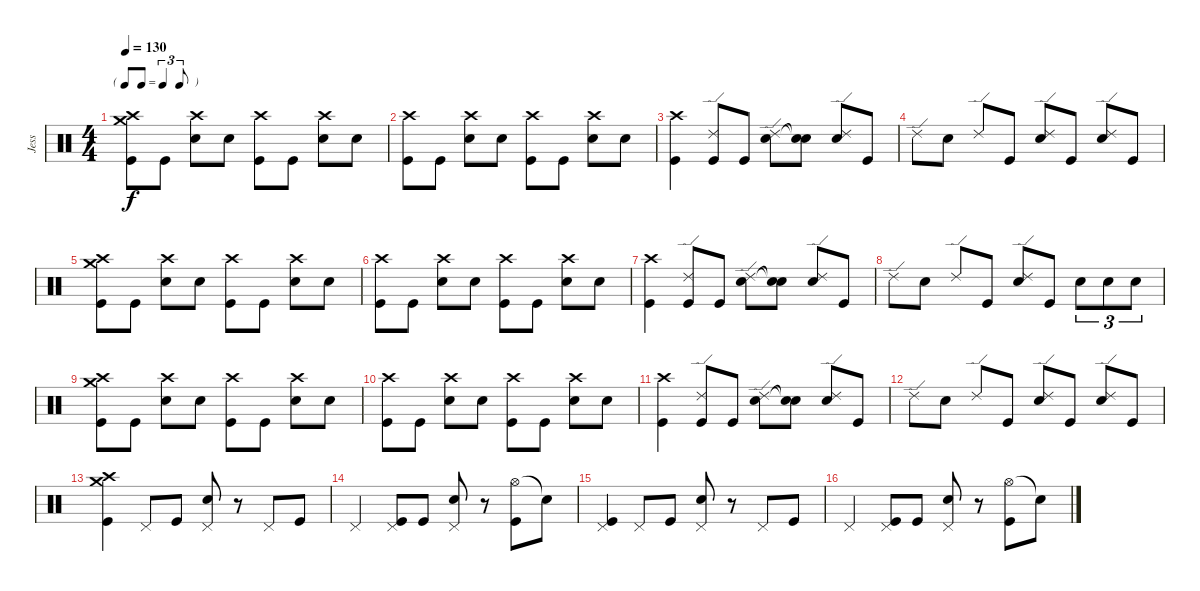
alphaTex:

\track ("Jess" "Jess") {instrument percussion}
\staff {score}
\articulation defaults
\ts (4 4)
\tf triplet8th
\tempo 130
\clef neutral
\ks c
("Crash high (hit)" "Crash medium (hit)" "Kick (hit)").8{dy f} "Kick (hit)".8 ("Crash high (hit)" "Snare (hit) 2").8 "Snare (hit) 2".8 ("Crash high (hit)" "Kick (hit)").8 "Kick (hit)".8 ("Crash high (hit)" "Snare (hit) 2").8 "Snare (hit) 2".8 |
("Crash high (hit)" "Kick (hit)").8 "Kick (hit)".8 ("Crash high (hit)" "Snare (hit) 2").8 "Snare (hit) 2".8 ("Crash high (hit)" "Kick (hit)").8 "Kick (hit)".8 ("Crash high (hit)" "Snare (hit) 2").8 "Snare (hit) 2".8 |
("Crash high (hit)" "Kick (hit)").4 ("Ride (edge) 2" "Kick (hit)").8 "Kick (hit)".8 ("Ride (edge) 2" "Snare (hit) 2").8 ("Snare (hit)"{t} "Snare (hit)"{t}).8 ("Ride (edge) 2" "Snare (hit) 2").8 "Kick (hit)".8 |
"Ride (edge) 2".8 "Snare (hit) 2".8 "Ride (edge) 2".8 "Kick (hit)".8 ("Ride (edge) 2" "Snare (hit) 2").8 "Kick (hit)".8 ("Ride (edge) 2" "Snare (hit) 2").8 "Kick (hit)".8 |
("Crash high (hit)" "Crash medium (hit)" "Kick (hit)").8 "Kick (hit)".8 ("Crash high (hit)" "Snare (hit) 2").8 "Snare (hit) 2".8 ("Crash high (hit)" "Kick (hit)").8 "Kick (hit)".8 ("Crash high (hit)" "Snare (hit) 2").8 "Snare (hit) 2".8 |
("Crash high (hit)" "Kick (hit)").8 "Kick (hit)".8 ("Crash high (hit)" "Snare (hit) 2").8 "Snare (hit) 2".8 ("Crash high (hit)" "Kick (hit)").8 "Kick (hit)".8 ("Crash high (hit)" "Snare (hit) 2").8 "Snare (hit) 2".8 |
("Crash high (hit)" "Kick (hit)").4 ("Ride (edge) 2" "Kick (hit)").8 "Kick (hit)".8 ("Ride (edge) 2" "Snare (hit) 2").8 ("Snare (hit)"{t} "Snare (hit)"{t}).8 ("Ride (edge) 2" "Snare (hit) 2").8 "Kick (hit)".8 |
"Ride (edge) 2".8 "Snare (hit) 2".8 "Ride (edge) 2".8 "Kick (hit)".8 ("Ride (edge) 2" "Snare (hit) 2").8 "Kick (hit)".8 "Snare (hit) 2".8{tu (3 2)} "Snare (hit) 2".8{tu (3 2)} "Snare (hit) 2".8{tu (3 2)} |
("Crash high (hit)" "Crash medium (hit)" "Kick (hit)").8 "Kick (hit)".8 ("Crash high (hit)" "Snare (hit) 2").8 "Snare (hit) 2".8 ("Crash high (hit)" "Kick (hit)").8 "Kick (hit)".8 ("Crash high (hit)" "Snare (hit) 2").8 "Snare (hit) 2".8 |
("Crash high (hit)" "Kick (hit)").8 "Kick (hit)".8 ("Crash high (hit)" "Snare (hit) 2").8 "Snare (hit) 2".8 ("Crash high (hit)" "Kick (hit)").8 "Kick (hit)".8 ("Crash high (hit)" "Snare (hit) 2").8 "Snare (hit) 2".8 |
("Crash high (hit)" "Kick (hit)").4 ("Ride (edge) 2" "Kick (hit)").8 "Kick (hit)".8 ("Ride (edge) 2" "Snare (hit) 2").8 ("Snare (hit)"{t} "Snare (hit)"{t}).8 ("Ride (edge) 2" "Snare (hit) 2").8 "Kick (hit)".8 |
"Ride (edge) 2".8 "Snare (hit) 2".8 "Ride (edge) 2".8 "Kick (hit)".8 ("Ride (edge) 2" "Snare (hit) 2").8 "Kick (hit)".8 ("Ride (edge) 2" "Snare (hit) 2").8 "Kick (hit)".8 |
("Crash high (hit)" "Crash medium (hit)" "Kick (hit)").4 "Pedal Hi-Hat (hit)".8 "Kick (hit)".8 ("Pedal Hi-Hat (hit)" "Snare (hit) 2").8 r.8 "Pedal Hi-Hat (hit)".8 "Kick (hit)".8 |
"Pedal Hi-Hat (hit)".4 ("Pedal Hi-Hat (hit)" "Kick (hit)").8 "Kick (hit)".8 ("Pedal Hi-Hat (hit)" "Snare (hit) 2").8 r.8 ("Hi-Hat (open)" "Kick (hit)").8 "Snare (hit)"{t}.8 |
("Pedal Hi-Hat (hit)" "Kick (hit)").4 "Pedal Hi-Hat (hit)".8 "Kick (hit)".8 ("Pedal Hi-Hat (hit)" "Snare (hit) 2").8 r.8 "Pedal Hi-Hat (hit)".8 "Kick (hit)".8 |
"Pedal Hi-Hat (hit)".4 ("Pedal Hi-Hat (hit)" "Kick (hit)").8 "Kick (hit)".8 ("Pedal Hi-Hat (hit)" "Snare (hit) 2").8 r.8 ("Hi-Hat (open)" "Kick (hit)").8 "Snare (hit)"{t}.8
